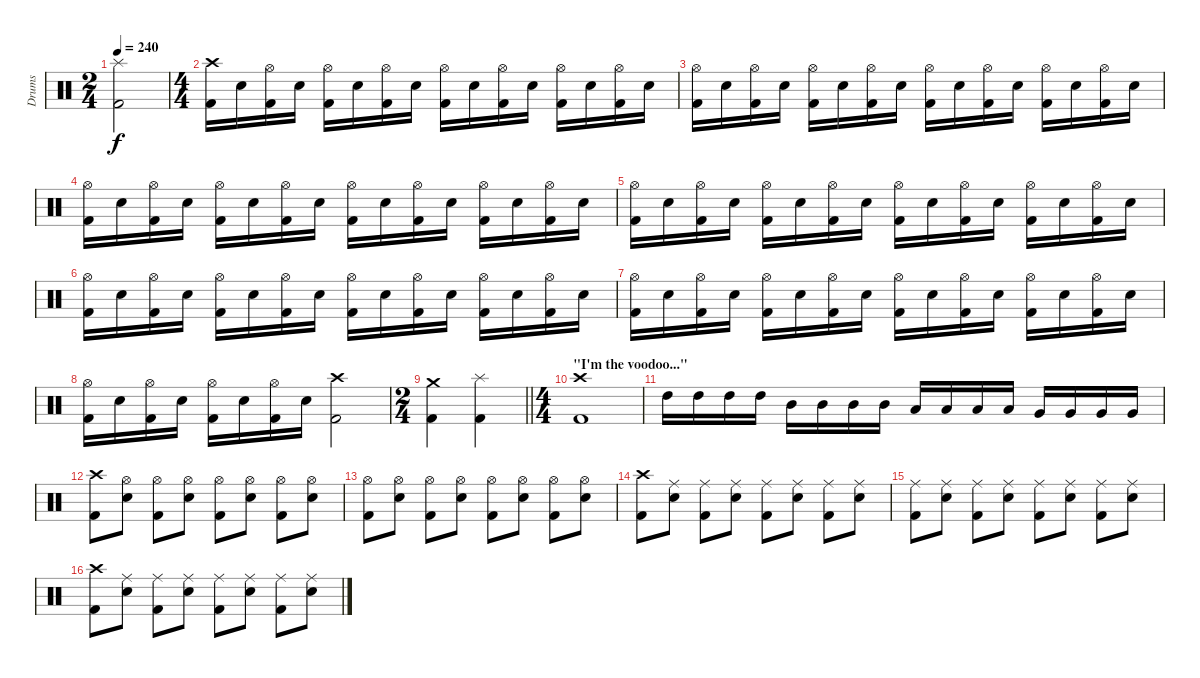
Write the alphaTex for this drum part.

\track ("Drums" "Drums") {instrument percussion}
\staff {score}
\articulation defaults
\ts (2 4)
\tempo 240
\clef neutral
\ks c
("Splash (hit)" "Kick (hit) 2").2{dy f} |
\ts (4 4)
("Crash high (hit)" "Kick (hit) 2").16 "Electric Snare (hit)".16 ("Hi-Hat (open)" "Kick (hit) 2").16 "Electric Snare (hit)".16 ("Hi-Hat (open)" "Kick (hit) 2").16 "Electric Snare (hit)".16 ("Hi-Hat (open)" "Kick (hit) 2").16 "Electric Snare (hit)".16 ("Hi-Hat (open)" "Kick (hit) 2").16 "Electric Snare (hit)".16 ("Hi-Hat (open)" "Kick (hit) 2").16 "Electric Snare (hit)".16 ("Hi-Hat (open)" "Kick (hit) 2").16 "Electric Snare (hit)".16 ("Hi-Hat (open)" "Kick (hit) 2").16 "Electric Snare (hit)".16 |
("Hi-Hat (open)" "Kick (hit) 2").16 "Electric Snare (hit)".16 ("Hi-Hat (open)" "Kick (hit) 2").16 "Electric Snare (hit)".16 ("Hi-Hat (open)" "Kick (hit) 2").16 "Electric Snare (hit)".16 ("Hi-Hat (open)" "Kick (hit) 2").16 "Electric Snare (hit)".16 ("Hi-Hat (open)" "Kick (hit) 2").16 "Electric Snare (hit)".16 ("Hi-Hat (open)" "Kick (hit) 2").16 "Electric Snare (hit)".16 ("Hi-Hat (open)" "Kick (hit) 2").16 "Electric Snare (hit)".16 ("Hi-Hat (open)" "Kick (hit) 2").16 "Electric Snare (hit)".16 |
("Hi-Hat (open)" "Kick (hit) 2").16 "Electric Snare (hit)".16 ("Hi-Hat (open)" "Kick (hit) 2").16 "Electric Snare (hit)".16 ("Hi-Hat (open)" "Kick (hit) 2").16 "Electric Snare (hit)".16 ("Hi-Hat (open)" "Kick (hit) 2").16 "Electric Snare (hit)".16 ("Hi-Hat (open)" "Kick (hit) 2").16 "Electric Snare (hit)".16 ("Hi-Hat (open)" "Kick (hit) 2").16 "Electric Snare (hit)".16 ("Hi-Hat (open)" "Kick (hit) 2").16 "Electric Snare (hit)".16 ("Hi-Hat (open)" "Kick (hit) 2").16 "Electric Snare (hit)".16 |
("Hi-Hat (open)" "Kick (hit) 2").16 "Electric Snare (hit)".16 ("Hi-Hat (open)" "Kick (hit) 2").16 "Electric Snare (hit)".16 ("Hi-Hat (open)" "Kick (hit) 2").16 "Electric Snare (hit)".16 ("Hi-Hat (open)" "Kick (hit) 2").16 "Electric Snare (hit)".16 ("Hi-Hat (open)" "Kick (hit) 2").16 "Electric Snare (hit)".16 ("Hi-Hat (open)" "Kick (hit) 2").16 "Electric Snare (hit)".16 ("Hi-Hat (open)" "Kick (hit) 2").16 "Electric Snare (hit)".16 ("Hi-Hat (open)" "Kick (hit) 2").16 "Electric Snare (hit)".16 |
("Hi-Hat (open)" "Kick (hit) 2").16 "Electric Snare (hit)".16 ("Hi-Hat (open)" "Kick (hit) 2").16 "Electric Snare (hit)".16 ("Hi-Hat (open)" "Kick (hit) 2").16 "Electric Snare (hit)".16 ("Hi-Hat (open)" "Kick (hit) 2").16 "Electric Snare (hit)".16 ("Hi-Hat (open)" "Kick (hit) 2").16 "Electric Snare (hit)".16 ("Hi-Hat (open)" "Kick (hit) 2").16 "Electric Snare (hit)".16 ("Hi-Hat (open)" "Kick (hit) 2").16 "Electric Snare (hit)".16 ("Hi-Hat (open)" "Kick (hit) 2").16 "Electric Snare (hit)".16 |
("Hi-Hat (open)" "Kick (hit) 2").16 "Electric Snare (hit)".16 ("Hi-Hat (open)" "Kick (hit) 2").16 "Electric Snare (hit)".16 ("Hi-Hat (open)" "Kick (hit) 2").16 "Electric Snare (hit)".16 ("Hi-Hat (open)" "Kick (hit) 2").16 "Electric Snare (hit)".16 ("Hi-Hat (open)" "Kick (hit) 2").16 "Electric Snare (hit)".16 ("Hi-Hat (open)" "Kick (hit) 2").16 "Electric Snare (hit)".16 ("Hi-Hat (open)" "Kick (hit) 2").16 "Electric Snare (hit)".16 ("Hi-Hat (open)" "Kick (hit) 2").16 "Electric Snare (hit)".16 |
("Hi-Hat (open)" "Kick (hit) 2").16 "Electric Snare (hit)".16 ("Hi-Hat (open)" "Kick (hit) 2").16 "Electric Snare (hit)".16 ("Hi-Hat (open)" "Kick (hit) 2").16 "Electric Snare (hit)".16 ("Hi-Hat (open)" "Kick (hit) 2").16 "Electric Snare (hit)".16 ("Crash high (hit)" "Kick (hit) 2").2 |
\ts (2 4)
\barLineRight lightlight
("Crash medium (hit)" "Kick (hit) 2").4 ("Splash (hit)" "Kick (hit) 2").4 |
\ts (4 4)
\section ("" "\"I'm the voodoo...\"")
("Crash high (hit)" "Kick (hit) 2").1 |
"High Tom (hit)".16 "High Tom (hit)".16 "High Tom (hit)".16 "High Tom (hit)".16 "Mid Tom (hit)".16 "Mid Tom (hit)".16 "Mid Tom (hit)".16 "Mid Tom (hit)".16 "Low Tom (hit)".16 "Low Tom (hit)".16 "Low Tom (hit)".16 "Low Tom (hit)".16 "Very Low Tom (hit)".16 "Very Low Tom (hit)".16 "Very Low Tom (hit)".16 "Very Low Tom (hit)".16 |
("Crash high (hit)" "Kick (hit) 2").8 ("Hi-Hat (open)" "Electric Snare (hit)").8 ("Hi-Hat (open)" "Kick (hit) 2").8 ("Hi-Hat (open)" "Electric Snare (hit)").8 ("Hi-Hat (open)" "Kick (hit) 2").8 ("Hi-Hat (open)" "Electric Snare (hit)").8 ("Hi-Hat (open)" "Kick (hit) 2").8 ("Hi-Hat (open)" "Electric Snare (hit)").8 |
("Hi-Hat (open)" "Kick (hit) 2").8 ("Hi-Hat (open)" "Electric Snare (hit)").8 ("Hi-Hat (open)" "Kick (hit) 2").8 ("Hi-Hat (open)" "Electric Snare (hit)").8 ("Hi-Hat (open)" "Kick (hit) 2").8 ("Hi-Hat (open)" "Electric Snare (hit)").8 ("Hi-Hat (open)" "Kick (hit) 2").8 ("Hi-Hat (open)" "Electric Snare (hit)").8 |
("Crash high (hit)" "Kick (hit) 2").8 ("Ride (middle)" "Electric Snare (hit)").8 ("Ride (middle)" "Kick (hit) 2").8 ("Ride (middle)" "Electric Snare (hit)").8 ("Ride (middle)" "Kick (hit) 2").8 ("Ride (middle)" "Electric Snare (hit)").8 ("Ride (middle)" "Kick (hit) 2").8 ("Ride (middle)" "Electric Snare (hit)").8 |
("Ride (middle)" "Kick (hit) 2").8 ("Ride (middle)" "Electric Snare (hit)").8 ("Ride (middle)" "Kick (hit) 2").8 ("Ride (middle)" "Electric Snare (hit)").8 ("Ride (middle)" "Kick (hit) 2").8 ("Ride (middle)" "Electric Snare (hit)").8 ("Ride (middle)" "Kick (hit) 2").8 ("Ride (middle)" "Electric Snare (hit)").8 |
("Crash high (hit)" "Kick (hit) 2").8 ("Ride (middle)" "Electric Snare (hit)").8 ("Ride (middle)" "Kick (hit) 2").8 ("Ride (middle)" "Electric Snare (hit)").8 ("Ride (middle)" "Kick (hit) 2").8 ("Ride (middle)" "Electric Snare (hit)").8 ("Ride (middle)" "Kick (hit) 2").8 ("Ride (middle)" "Electric Snare (hit)").8
